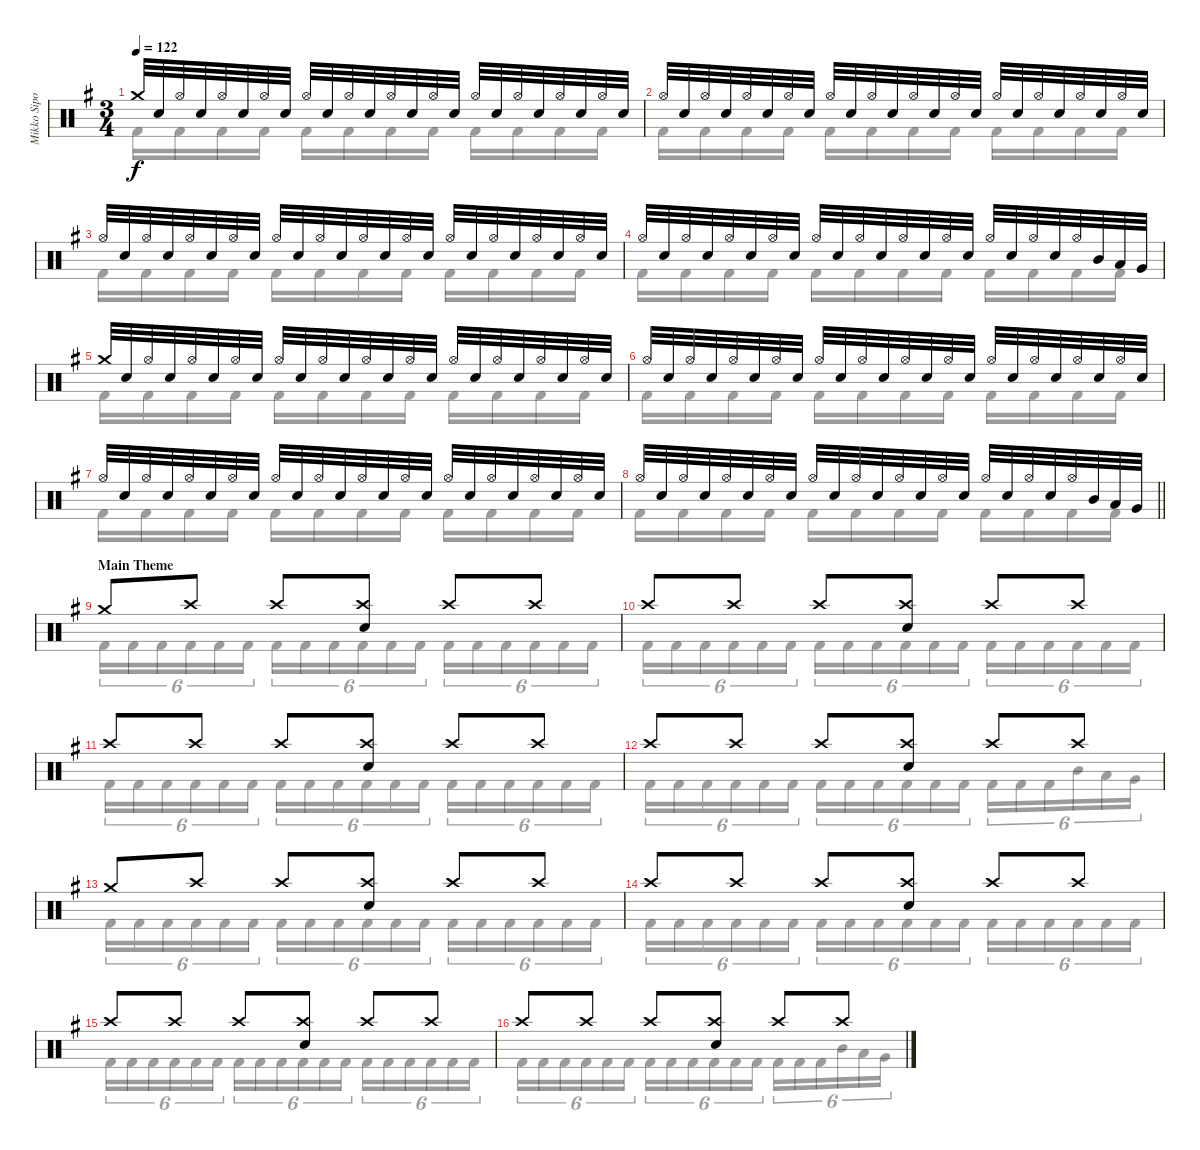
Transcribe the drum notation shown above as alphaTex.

\track ("Mikko Sipola - drums" "Mikko Sipo") {instrument percussion}
\staff {score}
\articulation defaults
\voice
\ts (3 4)
\tempo 122
\clef neutral
\ks eminor "Crash medium (hit)".32{dy f} "Electric Snare (hit)".32 "Hi-Hat (open)".32 "Electric Snare (hit)".32 "Hi-Hat (open)".32 "Electric Snare (hit)".32 "Hi-Hat (open)".32 "Electric Snare (hit)".32 "Hi-Hat (open)".32 "Electric Snare (hit)".32 "Hi-Hat (open)".32 "Electric Snare (hit)".32 "Hi-Hat (open)".32 "Electric Snare (hit)".32 "Hi-Hat (open)".32 "Electric Snare (hit)".32 "Hi-Hat (open)".32 "Electric Snare (hit)".32 "Hi-Hat (open)".32 "Electric Snare (hit)".32 "Hi-Hat (open)".32 "Electric Snare (hit)".32 "Hi-Hat (open)".32 "Electric Snare (hit)".32
|
"Hi-Hat (open)".32 "Electric Snare (hit)".32 "Hi-Hat (open)".32 "Electric Snare (hit)".32 "Hi-Hat (open)".32 "Electric Snare (hit)".32 "Hi-Hat (open)".32 "Electric Snare (hit)".32 "Hi-Hat (open)".32 "Electric Snare (hit)".32 "Hi-Hat (open)".32 "Electric Snare (hit)".32 "Hi-Hat (open)".32 "Electric Snare (hit)".32 "Hi-Hat (open)".32 "Electric Snare (hit)".32 "Hi-Hat (open)".32 "Electric Snare (hit)".32 "Hi-Hat (open)".32 "Electric Snare (hit)".32 "Hi-Hat (open)".32 "Electric Snare (hit)".32 "Hi-Hat (open)".32 "Electric Snare (hit)".32 |
"Hi-Hat (open)".32 "Electric Snare (hit)".32 "Hi-Hat (open)".32 "Electric Snare (hit)".32 "Hi-Hat (open)".32 "Electric Snare (hit)".32 "Hi-Hat (open)".32 "Electric Snare (hit)".32 "Hi-Hat (open)".32 "Electric Snare (hit)".32 "Hi-Hat (open)".32 "Electric Snare (hit)".32 "Hi-Hat (open)".32 "Electric Snare (hit)".32 "Hi-Hat (open)".32 "Electric Snare (hit)".32 "Hi-Hat (open)".32 "Electric Snare (hit)".32 "Hi-Hat (open)".32 "Electric Snare (hit)".32 "Hi-Hat (open)".32 "Electric Snare (hit)".32 "Hi-Hat (open)".32 "Electric Snare (hit)".32 |
"Hi-Hat (open)".32 "Electric Snare (hit)".32 "Hi-Hat (open)".32 "Electric Snare (hit)".32 "Hi-Hat (open)".32 "Electric Snare (hit)".32 "Hi-Hat (open)".32 "Electric Snare (hit)".32 "Hi-Hat (open)".32 "Electric Snare (hit)".32 "Hi-Hat (open)".32 "Electric Snare (hit)".32 "Hi-Hat (open)".32 "Electric Snare (hit)".32 "Hi-Hat (open)".32 "Electric Snare (hit)".32 "Hi-Hat (open)".32 "Electric Snare (hit)".32 "Hi-Hat (open)".32 "Electric Snare (hit)".32 "Hi-Hat (open)".32 "Mid Tom (hit)".32 "Low Tom (hit)".32 "Very Low Tom (hit)".32 |
"Crash medium (hit)".32 "Electric Snare (hit)".32 "Hi-Hat (open)".32 "Electric Snare (hit)".32 "Hi-Hat (open)".32 "Electric Snare (hit)".32 "Hi-Hat (open)".32 "Electric Snare (hit)".32 "Hi-Hat (open)".32 "Electric Snare (hit)".32 "Hi-Hat (open)".32 "Electric Snare (hit)".32 "Hi-Hat (open)".32 "Electric Snare (hit)".32 "Hi-Hat (open)".32 "Electric Snare (hit)".32 "Hi-Hat (open)".32 "Electric Snare (hit)".32 "Hi-Hat (open)".32 "Electric Snare (hit)".32 "Hi-Hat (open)".32 "Electric Snare (hit)".32 "Hi-Hat (open)".32 "Electric Snare (hit)".32 |
"Hi-Hat (open)".32 "Electric Snare (hit)".32 "Hi-Hat (open)".32 "Electric Snare (hit)".32 "Hi-Hat (open)".32 "Electric Snare (hit)".32 "Hi-Hat (open)".32 "Electric Snare (hit)".32 "Hi-Hat (open)".32 "Electric Snare (hit)".32 "Hi-Hat (open)".32 "Electric Snare (hit)".32 "Hi-Hat (open)".32 "Electric Snare (hit)".32 "Hi-Hat (open)".32 "Electric Snare (hit)".32 "Hi-Hat (open)".32 "Electric Snare (hit)".32 "Hi-Hat (open)".32 "Electric Snare (hit)".32 "Hi-Hat (open)".32 "Electric Snare (hit)".32 "Hi-Hat (open)".32 "Electric Snare (hit)".32 |
"Hi-Hat (open)".32 "Electric Snare (hit)".32 "Hi-Hat (open)".32 "Electric Snare (hit)".32 "Hi-Hat (open)".32 "Electric Snare (hit)".32 "Hi-Hat (open)".32 "Electric Snare (hit)".32 "Hi-Hat (open)".32 "Electric Snare (hit)".32 "Hi-Hat (open)".32 "Electric Snare (hit)".32 "Hi-Hat (open)".32 "Electric Snare (hit)".32 "Hi-Hat (open)".32 "Electric Snare (hit)".32 "Hi-Hat (open)".32 "Electric Snare (hit)".32 "Hi-Hat (open)".32 "Electric Snare (hit)".32 "Hi-Hat (open)".32 "Electric Snare (hit)".32 "Hi-Hat (open)".32 "Electric Snare (hit)".32 |
\barLineRight lightlight "Hi-Hat (open)".32 "Electric Snare (hit)".32 "Hi-Hat (open)".32 "Electric Snare (hit)".32 "Hi-Hat (open)".32 "Electric Snare (hit)".32 "Hi-Hat (open)".32 "Electric Snare (hit)".32 "Hi-Hat (open)".32 "Electric Snare (hit)".32 "Hi-Hat (open)".32 "Electric Snare (hit)".32 "Hi-Hat (open)".32 "Electric Snare (hit)".32 "Hi-Hat (open)".32 "Electric Snare (hit)".32 "Hi-Hat (open)".32 "Electric Snare (hit)".32 "Hi-Hat (open)".32 "Electric Snare (hit)".32 "Hi-Hat (open)".32 "Mid Tom (hit)".32 "Low Tom (hit)".32 "Very Low Tom (hit)".32
|
\section ("" "Main Theme")
"Crash medium (hit)".8 "Crash high (hit)".8 "Crash high (hit)".8 ("Snare (hit) 2" "Crash high (hit)").8 "Crash high (hit)".8 "Crash high (hit)".8 |
"Crash high (hit)".8 "Crash high (hit)".8 "Crash high (hit)".8 ("Snare (hit) 2" "Crash high (hit)").8 "Crash high (hit)".8 "Crash high (hit)".8 |
"Crash high (hit)".8 "Crash high (hit)".8 "Crash high (hit)".8 ("Snare (hit) 2" "Crash high (hit)").8 "Crash high (hit)".8 "Crash high (hit)".8 |
"Crash high (hit)".8 "Crash high (hit)".8 "Crash high (hit)".8 ("Snare (hit) 2" "Crash high (hit)").8 "Crash high (hit)".8 "Crash high (hit)".8 |
"Crash medium (hit)".8 "Crash high (hit)".8 "Crash high (hit)".8 ("Snare (hit) 2" "Crash high (hit)").8 "Crash high (hit)".8 "Crash high (hit)".8 |
"Crash high (hit)".8 "Crash high (hit)".8 "Crash high (hit)".8 ("Snare (hit) 2" "Crash high (hit)").8 "Crash high (hit)".8 "Crash high (hit)".8 |
"Crash high (hit)".8 "Crash high (hit)".8 "Crash high (hit)".8 ("Snare (hit) 2" "Crash high (hit)").8 "Crash high (hit)".8 "Crash high (hit)".8 |
"Crash high (hit)".8 "Crash high (hit)".8 "Crash high (hit)".8 ("Snare (hit) 2" "Crash high (hit)").8 "Crash high (hit)".8 "Crash high (hit)".8
\voice
\clef neutral
\ottava regular
\simile none
\ks eminor "Kick (hit) 2".16{dy f} "Kick (hit) 2".16 "Kick (hit) 2".16 "Kick (hit) 2".16 "Kick (hit) 2".16 "Kick (hit) 2".16 "Kick (hit) 2".16 "Kick (hit) 2".16 "Kick (hit) 2".16 "Kick (hit) 2".16 "Kick (hit) 2".16 "Kick (hit) 2".16
|
"Kick (hit) 2".16 "Kick (hit) 2".16 "Kick (hit) 2".16 "Kick (hit) 2".16 "Kick (hit) 2".16 "Kick (hit) 2".16 "Kick (hit) 2".16 "Kick (hit) 2".16 "Kick (hit) 2".16 "Kick (hit) 2".16 "Kick (hit) 2".16 "Kick (hit) 2".16 |
"Kick (hit) 2".16 "Kick (hit) 2".16 "Kick (hit) 2".16 "Kick (hit) 2".16 "Kick (hit) 2".16 "Kick (hit) 2".16 "Kick (hit) 2".16 "Kick (hit) 2".16 "Kick (hit) 2".16 "Kick (hit) 2".16 "Kick (hit) 2".16 "Kick (hit) 2".16 |
"Kick (hit) 2".16 "Kick (hit) 2".16 "Kick (hit) 2".16 "Kick (hit) 2".16 "Kick (hit) 2".16 "Kick (hit) 2".16 "Kick (hit) 2".16 "Kick (hit) 2".16 "Kick (hit) 2".16 "Kick (hit) 2".16 "Kick (hit) 2".16 "Kick (hit) 2".16 |
"Kick (hit) 2".16 "Kick (hit) 2".16 "Kick (hit) 2".16 "Kick (hit) 2".16 "Kick (hit) 2".16 "Kick (hit) 2".16 "Kick (hit) 2".16 "Kick (hit) 2".16 "Kick (hit) 2".16 "Kick (hit) 2".16 "Kick (hit) 2".16 "Kick (hit) 2".16 |
"Kick (hit) 2".16 "Kick (hit) 2".16 "Kick (hit) 2".16 "Kick (hit) 2".16 "Kick (hit) 2".16 "Kick (hit) 2".16 "Kick (hit) 2".16 "Kick (hit) 2".16 "Kick (hit) 2".16 "Kick (hit) 2".16 "Kick (hit) 2".16 "Kick (hit) 2".16 |
"Kick (hit) 2".16 "Kick (hit) 2".16 "Kick (hit) 2".16 "Kick (hit) 2".16 "Kick (hit) 2".16 "Kick (hit) 2".16 "Kick (hit) 2".16 "Kick (hit) 2".16 "Kick (hit) 2".16 "Kick (hit) 2".16 "Kick (hit) 2".16 "Kick (hit) 2".16 |
\barLineRight lightlight "Kick (hit) 2".16 "Kick (hit) 2".16 "Kick (hit) 2".16 "Kick (hit) 2".16 "Kick (hit) 2".16 "Kick (hit) 2".16 "Kick (hit) 2".16 "Kick (hit) 2".16 "Kick (hit) 2".16 "Kick (hit) 2".16 "Kick (hit) 2".16 "Kick (hit) 2".16
|
"Kick (hit) 2".16{tu (6 4)} "Kick (hit) 2".16{tu (6 4)} "Kick (hit) 2".16{tu (6 4)} "Kick (hit) 2".16{tu (6 4)} "Kick (hit) 2".16{tu (6 4)} "Kick (hit) 2".16{tu (6 4)} "Kick (hit) 2".16{tu (6 4)} "Kick (hit) 2".16{tu (6 4)} "Kick (hit) 2".16{tu (6 4)} "Kick (hit) 2".16{tu (6 4)} "Kick (hit) 2".16{tu (6 4)} "Kick (hit) 2".16{tu (6 4)} "Kick (hit) 2".16{tu (6 4)} "Kick (hit) 2".16{tu (6 4)} "Kick (hit) 2".16{tu (6 4)} "Kick (hit) 2".16{tu (6 4)} "Kick (hit) 2".16{tu (6 4)} "Kick (hit) 2".16{tu (6 4)} |
"Kick (hit) 2".16{tu (6 4)} "Kick (hit) 2".16{tu (6 4)} "Kick (hit) 2".16{tu (6 4)} "Kick (hit) 2".16{tu (6 4)} "Kick (hit) 2".16{tu (6 4)} "Kick (hit) 2".16{tu (6 4)} "Kick (hit) 2".16{tu (6 4)} "Kick (hit) 2".16{tu (6 4)} "Kick (hit) 2".16{tu (6 4)} "Kick (hit) 2".16{tu (6 4)} "Kick (hit) 2".16{tu (6 4)} "Kick (hit) 2".16{tu (6 4)} "Kick (hit) 2".16{tu (6 4)} "Kick (hit) 2".16{tu (6 4)} "Kick (hit) 2".16{tu (6 4)} "Kick (hit) 2".16{tu (6 4)} "Kick (hit) 2".16{tu (6 4)} "Kick (hit) 2".16{tu (6 4)} |
"Kick (hit) 2".16{tu (6 4)} "Kick (hit) 2".16{tu (6 4)} "Kick (hit) 2".16{tu (6 4)} "Kick (hit) 2".16{tu (6 4)} "Kick (hit) 2".16{tu (6 4)} "Kick (hit) 2".16{tu (6 4)} "Kick (hit) 2".16{tu (6 4)} "Kick (hit) 2".16{tu (6 4)} "Kick (hit) 2".16{tu (6 4)} "Kick (hit) 2".16{tu (6 4)} "Kick (hit) 2".16{tu (6 4)} "Kick (hit) 2".16{tu (6 4)} "Kick (hit) 2".16{tu (6 4)} "Kick (hit) 2".16{tu (6 4)} "Kick (hit) 2".16{tu (6 4)} "Kick (hit) 2".16{tu (6 4)} "Kick (hit) 2".16{tu (6 4)} "Kick (hit) 2".16{tu (6 4)} |
"Kick (hit) 2".16{tu (6 4)} "Kick (hit) 2".16{tu (6 4)} "Kick (hit) 2".16{tu (6 4)} "Kick (hit) 2".16{tu (6 4)} "Kick (hit) 2".16{tu (6 4)} "Kick (hit) 2".16{tu (6 4)} "Kick (hit) 2".16{tu (6 4)} "Kick (hit) 2".16{tu (6 4)} "Kick (hit) 2".16{tu (6 4)} "Kick (hit) 2".16{tu (6 4)} "Kick (hit) 2".16{tu (6 4)} "Kick (hit) 2".16{tu (6 4)} "Kick (hit) 2".16{tu (6 4)} "Kick (hit) 2".16{tu (6 4)} "Kick (hit) 2".16{tu (6 4)} "Mid Tom (hit)".16{tu (6 4)} "Low Tom (hit)".16{tu (6 4)} "Very Low Tom (hit)".16{tu (6 4)} |
"Kick (hit) 2".16{tu (6 4)} "Kick (hit) 2".16{tu (6 4)} "Kick (hit) 2".16{tu (6 4)} "Kick (hit) 2".16{tu (6 4)} "Kick (hit) 2".16{tu (6 4)} "Kick (hit) 2".16{tu (6 4)} "Kick (hit) 2".16{tu (6 4)} "Kick (hit) 2".16{tu (6 4)} "Kick (hit) 2".16{tu (6 4)} "Kick (hit) 2".16{tu (6 4)} "Kick (hit) 2".16{tu (6 4)} "Kick (hit) 2".16{tu (6 4)} "Kick (hit) 2".16{tu (6 4)} "Kick (hit) 2".16{tu (6 4)} "Kick (hit) 2".16{tu (6 4)} "Kick (hit) 2".16{tu (6 4)} "Kick (hit) 2".16{tu (6 4)} "Kick (hit) 2".16{tu (6 4)} |
"Kick (hit) 2".16{tu (6 4)} "Kick (hit) 2".16{tu (6 4)} "Kick (hit) 2".16{tu (6 4)} "Kick (hit) 2".16{tu (6 4)} "Kick (hit) 2".16{tu (6 4)} "Kick (hit) 2".16{tu (6 4)} "Kick (hit) 2".16{tu (6 4)} "Kick (hit) 2".16{tu (6 4)} "Kick (hit) 2".16{tu (6 4)} "Kick (hit) 2".16{tu (6 4)} "Kick (hit) 2".16{tu (6 4)} "Kick (hit) 2".16{tu (6 4)} "Kick (hit) 2".16{tu (6 4)} "Kick (hit) 2".16{tu (6 4)} "Kick (hit) 2".16{tu (6 4)} "Kick (hit) 2".16{tu (6 4)} "Kick (hit) 2".16{tu (6 4)} "Kick (hit) 2".16{tu (6 4)} |
"Kick (hit) 2".16{tu (6 4)} "Kick (hit) 2".16{tu (6 4)} "Kick (hit) 2".16{tu (6 4)} "Kick (hit) 2".16{tu (6 4)} "Kick (hit) 2".16{tu (6 4)} "Kick (hit) 2".16{tu (6 4)} "Kick (hit) 2".16{tu (6 4)} "Kick (hit) 2".16{tu (6 4)} "Kick (hit) 2".16{tu (6 4)} "Kick (hit) 2".16{tu (6 4)} "Kick (hit) 2".16{tu (6 4)} "Kick (hit) 2".16{tu (6 4)} "Kick (hit) 2".16{tu (6 4)} "Kick (hit) 2".16{tu (6 4)} "Kick (hit) 2".16{tu (6 4)} "Kick (hit) 2".16{tu (6 4)} "Kick (hit) 2".16{tu (6 4)} "Kick (hit) 2".16{tu (6 4)} |
"Kick (hit) 2".16{tu (6 4)} "Kick (hit) 2".16{tu (6 4)} "Kick (hit) 2".16{tu (6 4)} "Kick (hit) 2".16{tu (6 4)} "Kick (hit) 2".16{tu (6 4)} "Kick (hit) 2".16{tu (6 4)} "Kick (hit) 2".16{tu (6 4)} "Kick (hit) 2".16{tu (6 4)} "Kick (hit) 2".16{tu (6 4)} "Kick (hit) 2".16{tu (6 4)} "Kick (hit) 2".16{tu (6 4)} "Kick (hit) 2".16{tu (6 4)} "Kick (hit) 2".16{tu (6 4)} "Kick (hit) 2".16{tu (6 4)} "Kick (hit) 2".16{tu (6 4)} "Mid Tom (hit)".16{tu (6 4)} "Low Tom (hit)".16{tu (6 4)} "Very Low Tom (hit)".16{tu (6 4)}
